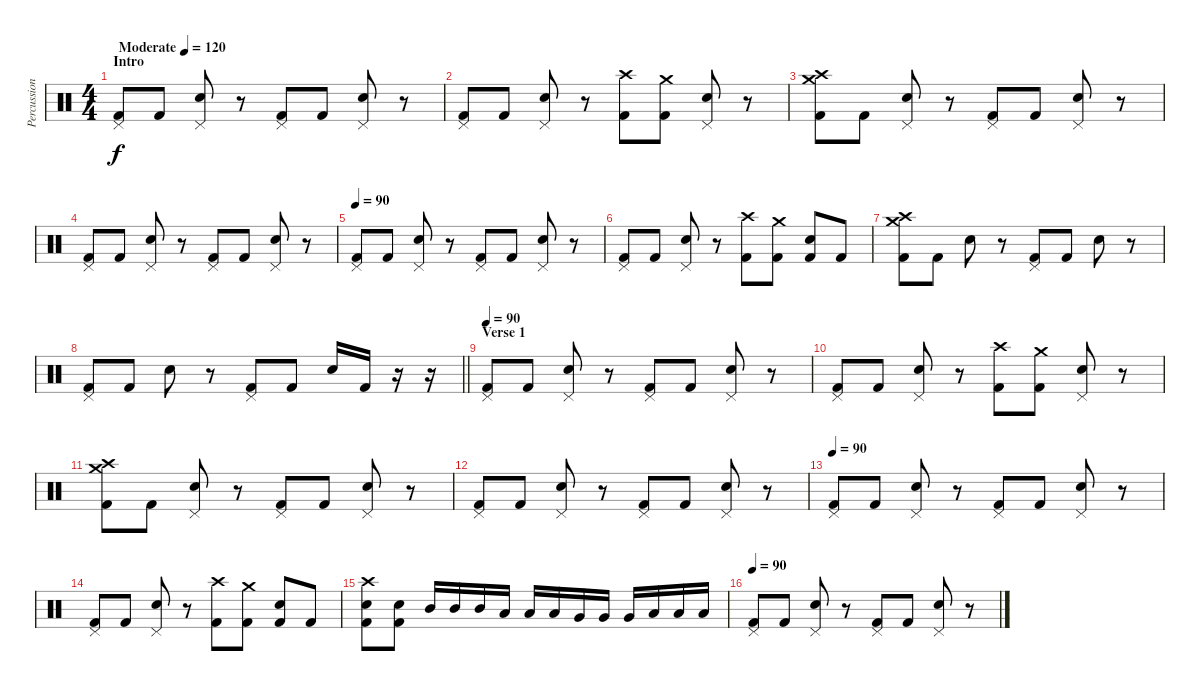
\track ("Percussion" "Percussion") {instrument percussion}
\staff {score}
\articulation defaults
\ts (4 4)
\section ("" "Intro")
\tempo (120 "Moderate")
\tempo 90
\tempo (120 "Moderate")
\clef neutral
\ks c
("Kick (hit) 2" "Pedal Hi-Hat (hit)").8{dy f} "Kick (hit) 2".8 ("Snare (hit) 2" "Pedal Hi-Hat (hit)").8 r.8 ("Kick (hit) 2" "Pedal Hi-Hat (hit)").8 "Kick (hit) 2".8 ("Snare (hit) 2" "Pedal Hi-Hat (hit)").8 r.8 |
("Kick (hit) 2" "Pedal Hi-Hat (hit)").8 "Kick (hit) 2".8 ("Snare (hit) 2" "Pedal Hi-Hat (hit)").8 r.8 ("Kick (hit) 2" "Crash high (hit)").8 ("Kick (hit) 2" "Crash medium (hit)").8 ("Snare (hit) 2" "Pedal Hi-Hat (hit)").8 r.8 |
("Kick (hit) 2" "Crash medium (hit)" "Crash high (hit)").8 "Kick (hit) 2".8 ("Snare (hit) 2" "Pedal Hi-Hat (hit)").8 r.8 ("Kick (hit) 2" "Pedal Hi-Hat (hit)").8 "Kick (hit) 2".8 ("Snare (hit) 2" "Pedal Hi-Hat (hit)").8 r.8 |
("Kick (hit) 2" "Pedal Hi-Hat (hit)").8 "Kick (hit) 2".8 ("Snare (hit) 2" "Pedal Hi-Hat (hit)").8 r.8 ("Kick (hit) 2" "Pedal Hi-Hat (hit)").8 "Kick (hit) 2".8 ("Snare (hit) 2" "Pedal Hi-Hat (hit)").8 r.8 |
\tempo 90
("Kick (hit) 2" "Pedal Hi-Hat (hit)").8 "Kick (hit) 2".8 ("Snare (hit) 2" "Pedal Hi-Hat (hit)").8 r.8 ("Kick (hit) 2" "Pedal Hi-Hat (hit)").8 "Kick (hit) 2".8 ("Snare (hit) 2" "Pedal Hi-Hat (hit)").8 r.8 |
("Kick (hit) 2" "Pedal Hi-Hat (hit)").8 "Kick (hit) 2".8 ("Snare (hit) 2" "Pedal Hi-Hat (hit)").8 r.8 ("Kick (hit) 2" "Crash high (hit)").8 ("Kick (hit) 2" "Crash medium (hit)").8 ("Kick (hit) 2" "Snare (hit) 2").8 "Kick (hit) 2".8 |
("Kick (hit) 2" "Crash medium (hit)" "Crash high (hit)").8 "Kick (hit) 2".8 "Snare (hit) 2".8 r.8 ("Kick (hit) 2" "Pedal Hi-Hat (hit)").8 "Kick (hit) 2".8 "Snare (hit) 2".8 r.8 |
\barLineRight lightlight
("Kick (hit) 2" "Pedal Hi-Hat (hit)").8 "Kick (hit) 2".8 "Snare (hit) 2".8 r.8 ("Kick (hit) 2" "Pedal Hi-Hat (hit)").8 "Kick (hit) 2".8 "Snare (hit) 2".16 "Kick (hit) 2".16 r.16 r.16 |
\section ("" "Verse 1")
\tempo 90
("Kick (hit) 2" "Pedal Hi-Hat (hit)").8 "Kick (hit) 2".8 ("Snare (hit) 2" "Pedal Hi-Hat (hit)").8 r.8 ("Kick (hit) 2" "Pedal Hi-Hat (hit)").8 "Kick (hit) 2".8 ("Snare (hit) 2" "Pedal Hi-Hat (hit)").8 r.8 |
("Kick (hit) 2" "Pedal Hi-Hat (hit)").8 "Kick (hit) 2".8 ("Snare (hit) 2" "Pedal Hi-Hat (hit)").8 r.8 ("Kick (hit) 2" "Crash high (hit)").8 ("Kick (hit) 2" "Crash medium (hit)").8 ("Snare (hit) 2" "Pedal Hi-Hat (hit)").8 r.8 |
("Kick (hit) 2" "Crash medium (hit)" "Crash high (hit)").8 "Kick (hit) 2".8 ("Snare (hit) 2" "Pedal Hi-Hat (hit)").8 r.8 ("Kick (hit) 2" "Pedal Hi-Hat (hit)").8 "Kick (hit) 2".8 ("Snare (hit) 2" "Pedal Hi-Hat (hit)").8 r.8 |
("Kick (hit) 2" "Pedal Hi-Hat (hit)").8 "Kick (hit) 2".8 ("Snare (hit) 2" "Pedal Hi-Hat (hit)").8 r.8 ("Kick (hit) 2" "Pedal Hi-Hat (hit)").8 "Kick (hit) 2".8 ("Snare (hit) 2" "Pedal Hi-Hat (hit)").8 r.8 |
\tempo 90
("Kick (hit) 2" "Pedal Hi-Hat (hit)").8 "Kick (hit) 2".8 ("Snare (hit) 2" "Pedal Hi-Hat (hit)").8 r.8 ("Kick (hit) 2" "Pedal Hi-Hat (hit)").8 "Kick (hit) 2".8 ("Snare (hit) 2" "Pedal Hi-Hat (hit)").8 r.8 |
("Kick (hit) 2" "Pedal Hi-Hat (hit)").8 "Kick (hit) 2".8 ("Snare (hit) 2" "Pedal Hi-Hat (hit)").8 r.8 ("Kick (hit) 2" "Crash high (hit)").8 ("Kick (hit) 2" "Crash medium (hit)").8 ("Kick (hit) 2" "Snare (hit) 2").8 "Kick (hit) 2".8 |
("Kick (hit) 2" "Snare (hit) 2" "Crash high (hit)").8 ("Kick (hit) 2" "Snare (hit) 2").8 "Mid Tom (hit)".16 "Mid Tom (hit)".16 "Mid Tom (hit)".16 "Low Tom (hit)".16 "Low Tom (hit)".16 "Low Tom (hit)".16 "Very Low Tom (hit)".16 "Very Low Tom (hit)".16 "Very Low Tom (hit)".16 "Low Floor Tom (hit)".16 "Low Floor Tom (hit)".16 "Low Floor Tom (hit)".16 |
\tempo 90
("Kick (hit) 2" "Pedal Hi-Hat (hit)").8 "Kick (hit) 2".8 ("Snare (hit) 2" "Pedal Hi-Hat (hit)").8 r.8 ("Kick (hit) 2" "Pedal Hi-Hat (hit)").8 "Kick (hit) 2".8 ("Snare (hit) 2" "Pedal Hi-Hat (hit)").8 r.8
